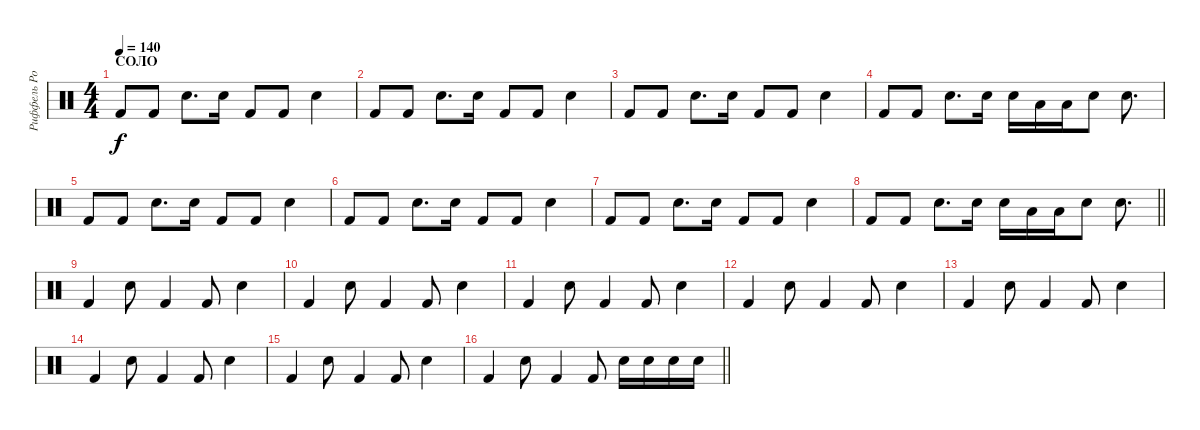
\track ("Риффель Роман(главные)" "Риффель Ро") {instrument percussion}
\staff {score}
\articulation defaults
\ts (4 4)
\section ("" "СОЛО")
\tempo 140
\clef neutral
\ks c "Kick (hit) 2".8{dy f} "Kick (hit) 2".8 "Electric Snare (hit)".8{d} "Electric Snare (hit)".16 "Kick (hit) 2".8 "Kick (hit) 2".8 "Electric Snare (hit)".4
|
"Kick (hit) 2".8 "Kick (hit) 2".8 "Electric Snare (hit)".8{d} "Electric Snare (hit)".16 "Kick (hit) 2".8 "Kick (hit) 2".8 "Electric Snare (hit)".4 |
"Kick (hit) 2".8 "Kick (hit) 2".8 "Electric Snare (hit)".8{d} "Electric Snare (hit)".16 "Kick (hit) 2".8 "Kick (hit) 2".8 "Electric Snare (hit)".4 |
"Kick (hit) 2".8 "Kick (hit) 2".8 "Electric Snare (hit)".8{d} "Electric Snare (hit)".16 "Electric Snare (hit)".16 "Low Tom (hit)".16 "Low Tom (hit)".16 "Electric Snare (hit)".8 "Electric Snare (hit)".8{d} |
"Kick (hit) 2".8 "Kick (hit) 2".8 "Electric Snare (hit)".8{d} "Electric Snare (hit)".16 "Kick (hit) 2".8 "Kick (hit) 2".8 "Electric Snare (hit)".4 |
"Kick (hit) 2".8 "Kick (hit) 2".8 "Electric Snare (hit)".8{d} "Electric Snare (hit)".16 "Kick (hit) 2".8 "Kick (hit) 2".8 "Electric Snare (hit)".4 |
"Kick (hit) 2".8 "Kick (hit) 2".8 "Electric Snare (hit)".8{d} "Electric Snare (hit)".16 "Kick (hit) 2".8 "Kick (hit) 2".8 "Electric Snare (hit)".4 |
\barLineRight lightlight "Kick (hit) 2".8 "Kick (hit) 2".8 "Electric Snare (hit)".8{d} "Electric Snare (hit)".16 "Electric Snare (hit)".16 "Low Tom (hit)".16 "Low Tom (hit)".16 "Electric Snare (hit)".8 "Electric Snare (hit)".8{d}
|
"Kick (hit) 2".4 "Electric Snare (hit)".8 "Kick (hit) 2".4 "Kick (hit) 2".8 "Electric Snare (hit)".4 |
"Kick (hit) 2".4 "Electric Snare (hit)".8 "Kick (hit) 2".4 "Kick (hit) 2".8 "Electric Snare (hit)".4 |
"Kick (hit) 2".4 "Electric Snare (hit)".8 "Kick (hit) 2".4 "Kick (hit) 2".8 "Electric Snare (hit)".4 |
"Kick (hit) 2".4 "Electric Snare (hit)".8 "Kick (hit) 2".4 "Kick (hit) 2".8 "Electric Snare (hit)".4 |
"Kick (hit) 2".4 "Electric Snare (hit)".8 "Kick (hit) 2".4 "Kick (hit) 2".8 "Electric Snare (hit)".4 |
"Kick (hit) 2".4 "Electric Snare (hit)".8 "Kick (hit) 2".4 "Kick (hit) 2".8 "Electric Snare (hit)".4 |
"Kick (hit) 2".4 "Electric Snare (hit)".8 "Kick (hit) 2".4 "Kick (hit) 2".8 "Electric Snare (hit)".4 |
\barLineRight lightlight "Kick (hit) 2".4 "Electric Snare (hit)".8 "Kick (hit) 2".4 "Kick (hit) 2".8 "Electric Snare (hit)".16 "Electric Snare (hit)".16 "Electric Snare (hit)".16 "Electric Snare (hit)".16
